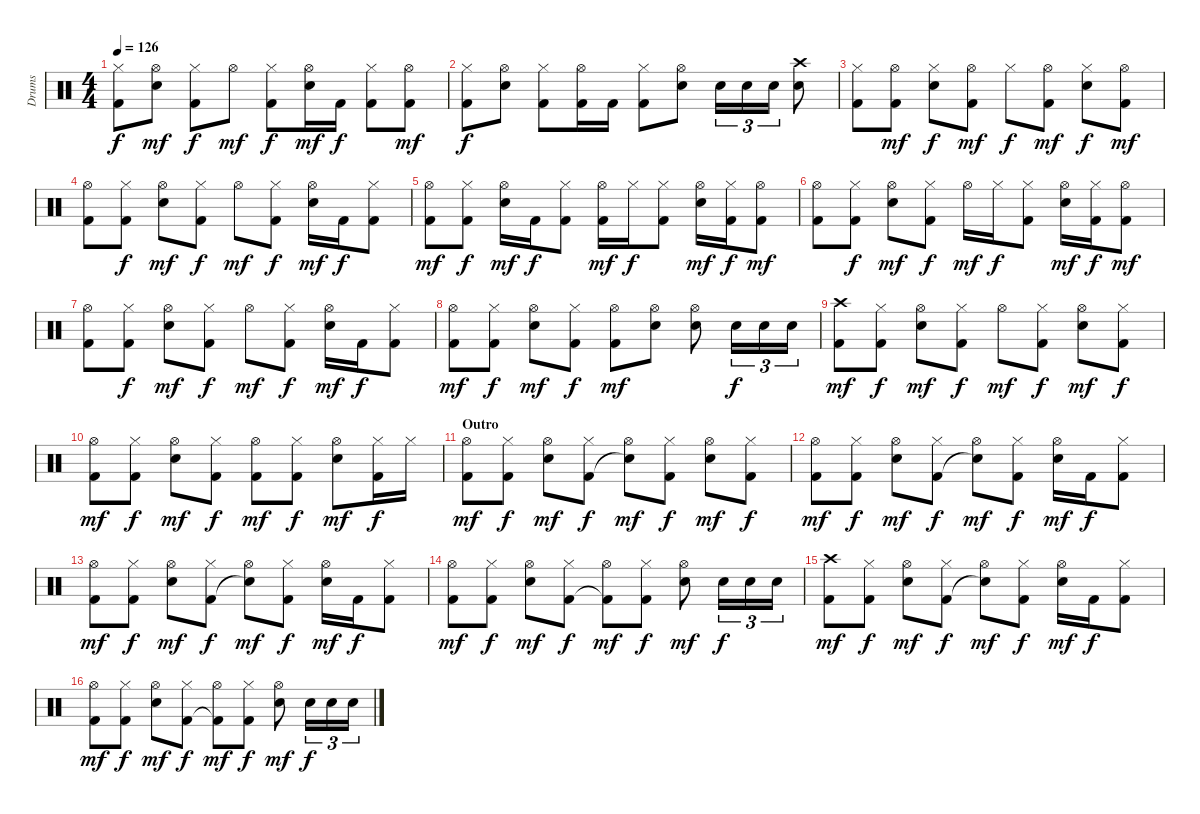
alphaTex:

\track ("Drums" "Drums") {instrument percussion}
\staff {score}
\articulation defaults
\ts (4 4)
\tempo 126
\clef neutral
\ks c
("Hi-Hat (closed)" "Kick (hit) 2").8{dy f} ("Hi-Hat (open)" "Electric Snare (hit)").8{dy mf} ("Hi-Hat (closed)" "Kick (hit) 2").8{dy f} "Hi-Hat (open)".8{dy mf} ("Hi-Hat (closed)" "Kick (hit) 2").8{dy f} ("Hi-Hat (open)" "Electric Snare (hit)").16{dy mf} "Kick (hit) 2".16{dy f} ("Hi-Hat (closed)" "Kick (hit) 2").8 ("Hi-Hat (open)" "Kick (hit) 2").8{dy mf} |
("Hi-Hat (closed)" "Kick (hit) 2").8{dy f} ("Hi-Hat (open)" "Electric Snare (hit)").8 ("Hi-Hat (closed)" "Kick (hit) 2").8 ("Hi-Hat (open)" "Kick (hit) 2").16 "Kick (hit) 2".16 ("Hi-Hat (closed)" "Kick (hit) 2").8 ("Hi-Hat (open)" "Electric Snare (hit)").8 "Electric Snare (hit)".16{tu (3 2)} "Electric Snare (hit)".16{tu (3 2)} "Electric Snare (hit)".16{tu (3 2)} ("Crash high (hit)" "Electric Snare (hit)").8 |
("Hi-Hat (closed)" "Kick (hit) 2").8 ("Hi-Hat (open)" "Kick (hit) 2").8{dy mf} ("Hi-Hat (closed)" "Electric Snare (hit)").8{dy f} ("Hi-Hat (open)" "Kick (hit) 2").8{dy mf} "Hi-Hat (closed)".8{dy f} ("Hi-Hat (open)" "Kick (hit) 2").8{dy mf} ("Hi-Hat (closed)" "Electric Snare (hit)").8{dy f} ("Hi-Hat (open)" "Kick (hit) 2").8{dy mf} |
("Hi-Hat (open)" "Kick (hit) 2").8 ("Hi-Hat (closed)" "Kick (hit) 2").8{dy f} ("Hi-Hat (open)" "Electric Snare (hit)").8{dy mf} ("Hi-Hat (closed)" "Kick (hit) 2").8{dy f} "Hi-Hat (open)".8{dy mf} ("Hi-Hat (closed)" "Kick (hit) 2").8{dy f} ("Hi-Hat (open)" "Electric Snare (hit)").16{dy mf} "Kick (hit) 2".16{dy f} ("Hi-Hat (closed)" "Kick (hit) 2").8 |
("Hi-Hat (open)" "Kick (hit) 2").8{dy mf} ("Hi-Hat (closed)" "Kick (hit) 2").8{dy f} ("Hi-Hat (open)" "Electric Snare (hit)").16{dy mf} "Kick (hit) 2".16{dy f} ("Hi-Hat (closed)" "Kick (hit) 2").8 ("Hi-Hat (open)" "Kick (hit) 2").16{dy mf} "Hi-Hat (closed)".16{dy f} ("Hi-Hat (closed)" "Kick (hit) 2").8 ("Hi-Hat (open)" "Electric Snare (hit)").16{dy mf} ("Hi-Hat (closed)" "Kick (hit) 2").16{dy f} ("Hi-Hat (open)" "Kick (hit) 2").8{dy mf} |
("Hi-Hat (open)" "Kick (hit) 2").8 ("Hi-Hat (closed)" "Kick (hit) 2").8{dy f} ("Hi-Hat (open)" "Electric Snare (hit)").8{dy mf} ("Hi-Hat (closed)" "Kick (hit) 2").8{dy f} "Hi-Hat (open)".16{dy mf} "Hi-Hat (closed)".16{dy f} ("Hi-Hat (closed)" "Kick (hit) 2").8 ("Hi-Hat (open)" "Electric Snare (hit)").16{dy mf} ("Hi-Hat (closed)" "Kick (hit) 2").16{dy f} ("Hi-Hat (open)" "Kick (hit) 2").8{dy mf} |
("Hi-Hat (open)" "Kick (hit) 2").8 ("Hi-Hat (closed)" "Kick (hit) 2").8{dy f} ("Hi-Hat (open)" "Electric Snare (hit)").8{dy mf} ("Hi-Hat (closed)" "Kick (hit) 2").8{dy f} "Hi-Hat (open)".8{dy mf} ("Hi-Hat (closed)" "Kick (hit) 2").8{dy f} ("Hi-Hat (open)" "Electric Snare (hit)").16{dy mf} "Kick (hit) 2".16{dy f} ("Hi-Hat (closed)" "Kick (hit) 2").8 |
("Hi-Hat (open)" "Kick (hit) 2").8{dy mf} ("Hi-Hat (closed)" "Kick (hit) 2").8{dy f} ("Hi-Hat (open)" "Electric Snare (hit)").8{dy mf} ("Hi-Hat (closed)" "Kick (hit) 2").8{dy f} ("Hi-Hat (open)" "Kick (hit) 2").8{dy mf} ("Hi-Hat (open)" "Electric Snare (hit)").8 ("Hi-Hat (open)" "Electric Snare (hit)").8 "Electric Snare (hit)".16{tu (3 2) dy f} "Electric Snare (hit)".16{tu (3 2)} "Electric Snare (hit)".16{tu (3 2)} |
("Crash high (hit)" "Kick (hit) 2").8{dy mf} ("Hi-Hat (closed)" "Kick (hit) 2").8{dy f} ("Hi-Hat (open)" "Electric Snare (hit)").8{dy mf} ("Hi-Hat (closed)" "Kick (hit) 2").8{dy f} "Hi-Hat (open)".8{dy mf} ("Hi-Hat (closed)" "Kick (hit) 2").8{dy f} ("Hi-Hat (open)" "Electric Snare (hit)").8{dy mf} ("Hi-Hat (closed)" "Kick (hit) 2").8{dy f} |
("Hi-Hat (open)" "Kick (hit) 2").8{dy mf} ("Hi-Hat (closed)" "Kick (hit) 2").8{dy f} ("Hi-Hat (open)" "Electric Snare (hit)").8{dy mf} ("Hi-Hat (closed)" "Kick (hit) 2").8{dy f} ("Hi-Hat (open)" "Kick (hit) 2").8{dy mf} ("Hi-Hat (closed)" "Kick (hit) 2").8{dy f} ("Hi-Hat (open)" "Electric Snare (hit)").8{dy mf} ("Hi-Hat (closed)" "Kick (hit) 2").16{dy f} "Hi-Hat (closed)".16 |
\section ("" "Outro")
("Hi-Hat (open)" "Kick (hit) 2").8{dy mf} ("Hi-Hat (closed)" "Kick (hit) 2").8{dy f} ("Hi-Hat (open)" "Electric Snare (hit)").8{dy mf} ("Hi-Hat (closed)" "Kick (hit) 2").8{dy f} ("Hi-Hat (open)" "Snare (hit)"{t}).8{dy mf} ("Hi-Hat (closed)" "Kick (hit) 2").8{dy f} ("Hi-Hat (open)" "Electric Snare (hit)").8{dy mf} ("Hi-Hat (closed)" "Kick (hit) 2").8{dy f} |
("Hi-Hat (open)" "Kick (hit) 2").8{dy mf} ("Hi-Hat (closed)" "Kick (hit) 2").8{dy f} ("Hi-Hat (open)" "Electric Snare (hit)").8{dy mf} ("Hi-Hat (closed)" "Kick (hit) 2").8{dy f} ("Hi-Hat (open)" "Snare (hit)"{t}).8{dy mf} ("Hi-Hat (closed)" "Kick (hit) 2").8{dy f} ("Hi-Hat (open)" "Electric Snare (hit)").16{dy mf} "Kick (hit) 2".16{dy f} ("Hi-Hat (closed)" "Kick (hit) 2").8 |
("Hi-Hat (open)" "Kick (hit) 2").8{dy mf} ("Hi-Hat (closed)" "Kick (hit) 2").8{dy f} ("Hi-Hat (open)" "Electric Snare (hit)").8{dy mf} ("Hi-Hat (closed)" "Kick (hit) 2").8{dy f} ("Hi-Hat (open)" "Snare (hit)"{t}).8{dy mf} ("Hi-Hat (closed)" "Kick (hit) 2").8{dy f} ("Hi-Hat (open)" "Electric Snare (hit)").16{dy mf} "Kick (hit) 2".16{dy f} ("Hi-Hat (closed)" "Kick (hit) 2").8 |
("Hi-Hat (open)" "Kick (hit) 2").8{dy mf} ("Hi-Hat (closed)" "Kick (hit) 2").8{dy f} ("Hi-Hat (open)" "Electric Snare (hit)").8{dy mf} ("Hi-Hat (closed)" "Kick (hit) 2").8{dy f} ("Hi-Hat (open)" "Kick (hit) 2"{t}).8{dy mf} ("Hi-Hat (closed)" "Kick (hit) 2").8{dy f} ("Hi-Hat (open)" "Electric Snare (hit)").8{dy mf} "Electric Snare (hit)".16{tu (3 2) dy f} "Electric Snare (hit)".16{tu (3 2)} "Electric Snare (hit)".16{tu (3 2)} |
("Crash high (hit)" "Kick (hit) 2").8{dy mf} ("Hi-Hat (closed)" "Kick (hit) 2").8{dy f} ("Hi-Hat (open)" "Electric Snare (hit)").8{dy mf} ("Hi-Hat (closed)" "Kick (hit) 2").8{dy f} ("Hi-Hat (open)" "Snare (hit)"{t}).8{dy mf} ("Hi-Hat (closed)" "Kick (hit) 2").8{dy f} ("Hi-Hat (open)" "Electric Snare (hit)").16{dy mf} "Kick (hit) 2".16{dy f} ("Hi-Hat (closed)" "Kick (hit) 2").8 |
("Hi-Hat (open)" "Kick (hit) 2").8{dy mf} ("Hi-Hat (closed)" "Kick (hit) 2").8{dy f} ("Hi-Hat (open)" "Electric Snare (hit)").8{dy mf} ("Hi-Hat (closed)" "Kick (hit) 2").8{dy f} ("Hi-Hat (open)" "Kick (hit) 2"{t}).8{dy mf} ("Hi-Hat (closed)" "Kick (hit) 2").8{dy f} ("Hi-Hat (open)" "Electric Snare (hit)").8{dy mf} "Electric Snare (hit)".16{tu (3 2) dy f} "Electric Snare (hit)".16{tu (3 2)} "Electric Snare (hit)".16{tu (3 2)}
